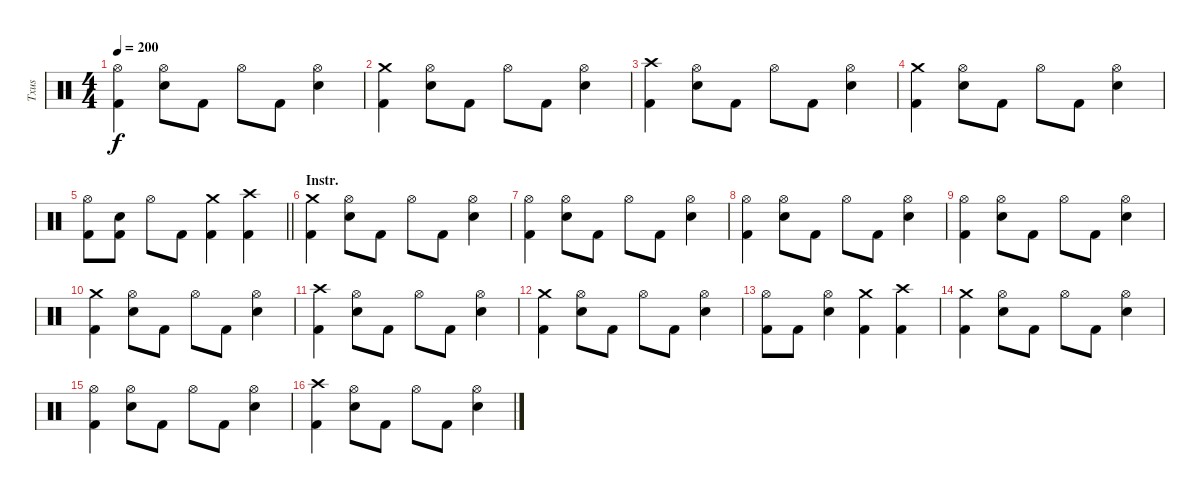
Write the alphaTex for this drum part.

\track ("Txus" "Txus") {instrument percussion}
\staff {score}
\articulation defaults
\ts (4 4)
\tempo 200
\clef neutral
\ks c
("Hi-Hat (open)" "Kick (hit) 2").4{dy f} ("Hi-Hat (open)" "Snare (hit) 2").8 "Kick (hit) 2".8 "Hi-Hat (open)".8 "Kick (hit) 2".8 ("Hi-Hat (open)" "Snare (hit) 2").4 |
("Crash medium (hit)" "Kick (hit) 2").4 ("Hi-Hat (open)" "Snare (hit) 2").8 "Kick (hit) 2".8 "Hi-Hat (open)".8 "Kick (hit) 2".8 ("Hi-Hat (open)" "Snare (hit) 2").4 |
("Crash high (hit)" "Kick (hit) 2").4 ("Hi-Hat (open)" "Snare (hit) 2").8 "Kick (hit) 2".8 "Hi-Hat (open)".8 "Kick (hit) 2".8 ("Hi-Hat (open)" "Snare (hit) 2").4 |
("Crash medium (hit)" "Kick (hit) 2").4 ("Hi-Hat (open)" "Snare (hit) 2").8 "Kick (hit) 2".8 "Hi-Hat (open)".8 "Kick (hit) 2".8 ("Hi-Hat (open)" "Snare (hit) 2").4 |
\barLineRight lightlight
("Hi-Hat (open)" "Kick (hit) 2").8 ("Snare (hit) 2" "Kick (hit) 2").8 "Hi-Hat (open)".8 "Kick (hit) 2".8 ("Crash medium (hit)" "Kick (hit) 2").4 ("Crash high (hit)" "Kick (hit) 2").4 |
\section ("" "Instr.")
("Crash medium (hit)" "Kick (hit) 2").4 ("Hi-Hat (open)" "Snare (hit) 2").8 "Kick (hit) 2".8 "Hi-Hat (open)".8 "Kick (hit) 2".8 ("Hi-Hat (open)" "Snare (hit) 2").4 |
("Hi-Hat (open)" "Kick (hit) 2").4 ("Hi-Hat (open)" "Snare (hit) 2").8 "Kick (hit) 2".8 "Hi-Hat (open)".8 "Kick (hit) 2".8 ("Hi-Hat (open)" "Snare (hit) 2").4 |
("Hi-Hat (open)" "Kick (hit) 2").4 ("Hi-Hat (open)" "Snare (hit) 2").8 "Kick (hit) 2".8 "Hi-Hat (open)".8 "Kick (hit) 2".8 ("Hi-Hat (open)" "Snare (hit) 2").4 |
("Hi-Hat (open)" "Kick (hit) 2").4 ("Hi-Hat (open)" "Snare (hit) 2").8 "Kick (hit) 2".8 "Hi-Hat (open)".8 "Kick (hit) 2".8 ("Hi-Hat (open)" "Snare (hit) 2").4 |
("Crash medium (hit)" "Kick (hit) 2").4 ("Hi-Hat (open)" "Snare (hit) 2").8 "Kick (hit) 2".8 "Hi-Hat (open)".8 "Kick (hit) 2".8 ("Hi-Hat (open)" "Snare (hit) 2").4 |
("Crash high (hit)" "Kick (hit) 2").4 ("Hi-Hat (open)" "Snare (hit) 2").8 "Kick (hit) 2".8 "Hi-Hat (open)".8 "Kick (hit) 2".8 ("Hi-Hat (open)" "Snare (hit) 2").4 |
("Crash medium (hit)" "Kick (hit) 2").4 ("Hi-Hat (open)" "Snare (hit) 2").8 "Kick (hit) 2".8 "Hi-Hat (open)".8 "Kick (hit) 2".8 ("Hi-Hat (open)" "Snare (hit) 2").4 |
("Hi-Hat (open)" "Kick (hit) 2").8 "Kick (hit) 2".8 ("Hi-Hat (open)" "Snare (hit) 2").4 ("Crash medium (hit)" "Kick (hit) 2").4 ("Crash high (hit)" "Kick (hit) 2").4 |
("Crash medium (hit)" "Kick (hit) 2").4 ("Hi-Hat (open)" "Snare (hit) 2").8 "Kick (hit) 2".8 "Hi-Hat (open)".8 "Kick (hit) 2".8 ("Hi-Hat (open)" "Snare (hit) 2").4 |
("Hi-Hat (open)" "Kick (hit) 2").4 ("Hi-Hat (open)" "Snare (hit) 2").8 "Kick (hit) 2".8 "Hi-Hat (open)".8 "Kick (hit) 2".8 ("Hi-Hat (open)" "Snare (hit) 2").4 |
("Crash high (hit)" "Kick (hit) 2").4 ("Hi-Hat (open)" "Snare (hit) 2").8 "Kick (hit) 2".8 "Hi-Hat (open)".8 "Kick (hit) 2".8 ("Hi-Hat (open)" "Snare (hit) 2").4
